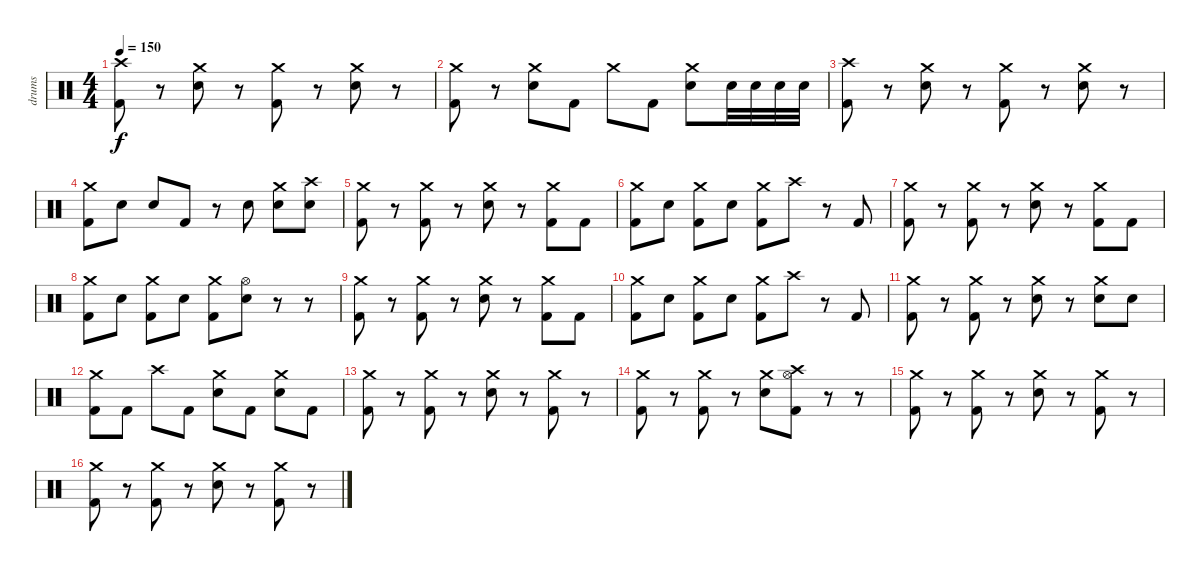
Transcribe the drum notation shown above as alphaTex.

\track ("drums" "drums") {instrument percussion}
\staff {score}
\articulation defaults
\ts (4 4)
\tempo 150
\clef neutral
\ks c
("Crash high (hit)" "Kick (hit) 2").8{dy f} r.8 ("Crash medium (hit)" "Snare (hit) 2").8 r.8 ("Crash medium (hit)" "Kick (hit) 2").8 r.8 ("Crash medium (hit)" "Snare (hit) 2").8 r.8 |
("Crash medium (hit)" "Kick (hit) 2").8 r.8 ("Crash medium (hit)" "Snare (hit) 2").8 "Kick (hit) 2".8 "Crash medium (hit)".8 "Kick (hit) 2".8 ("Crash medium (hit)" "Snare (hit) 2").8 "Snare (hit) 2".32 "Snare (hit) 2".32 "Snare (hit) 2".32 "Snare (hit) 2".32 |
("Crash high (hit)" "Kick (hit) 2").8 r.8 ("Crash medium (hit)" "Snare (hit) 2").8 r.8 ("Crash medium (hit)" "Kick (hit) 2").8 r.8 ("Crash medium (hit)" "Snare (hit) 2").8 r.8 |
("Crash medium (hit)" "Kick (hit) 2").8 "Snare (hit) 2".8 "Snare (hit) 2".8 "Kick (hit) 2".8 r.8 "Snare (hit) 2".8 ("Crash medium (hit)" "Snare (hit) 2").8 ("Crash high (hit)" "Snare (hit) 2").8 |
("Crash medium (hit)" "Kick (hit) 2").8 r.8 ("Crash medium (hit)" "Kick (hit) 2").8 r.8 ("Crash medium (hit)" "Snare (hit) 2").8 r.8 ("Crash medium (hit)" "Kick (hit) 2").8 "Kick (hit) 2".8 |
("Crash medium (hit)" "Kick (hit) 2").8 "Snare (hit) 2".8 ("Crash medium (hit)" "Kick (hit) 2").8 "Snare (hit) 2".8 ("Crash medium (hit)" "Kick (hit) 2").8 "Crash high (hit)".8 r.8 "Kick (hit) 2".8 |
("Crash medium (hit)" "Kick (hit) 2").8 r.8 ("Crash medium (hit)" "Kick (hit) 2").8 r.8 ("Crash medium (hit)" "Snare (hit) 2").8 r.8 ("Crash medium (hit)" "Kick (hit) 2").8 "Kick (hit) 2".8 |
("Crash medium (hit)" "Kick (hit) 2").8 "Snare (hit) 2".8 ("Crash medium (hit)" "Kick (hit) 2").8 "Snare (hit) 2".8 ("Crash medium (hit)" "Kick (hit) 2").8 ("Hi-Hat (open)" "Snare (hit) 2").8 r.8 r.8 |
("Crash medium (hit)" "Kick (hit) 2").8 r.8 ("Crash medium (hit)" "Kick (hit) 2").8 r.8 ("Crash medium (hit)" "Snare (hit) 2").8 r.8 ("Crash medium (hit)" "Kick (hit) 2").8 "Kick (hit) 2".8 |
("Crash medium (hit)" "Kick (hit) 2").8 "Snare (hit) 2".8 ("Crash medium (hit)" "Kick (hit) 2").8 "Snare (hit) 2".8 ("Crash medium (hit)" "Kick (hit) 2").8 "Crash high (hit)".8 r.8 "Kick (hit) 2".8 |
("Crash medium (hit)" "Kick (hit) 2").8 r.8 ("Crash medium (hit)" "Kick (hit) 2").8 r.8 ("Crash medium (hit)" "Snare (hit) 2").8 r.8 ("Crash medium (hit)" "Snare (hit) 2").8 "Snare (hit) 2".8 |
("Crash medium (hit)" "Kick (hit) 2").8 "Kick (hit) 2".8 "Crash high (hit)".8 "Kick (hit) 2".8 ("Crash medium (hit)" "Snare (hit) 2").8 "Kick (hit) 2".8 ("Crash medium (hit)" "Snare (hit) 2").8 "Kick (hit) 2".8 |
("Crash medium (hit)" "Kick (hit) 2").8 r.8 ("Crash medium (hit)" "Kick (hit) 2").8 r.8 ("Crash medium (hit)" "Snare (hit) 2").8 r.8 ("Crash medium (hit)" "Kick (hit) 2").8 r.8 |
("Crash medium (hit)" "Kick (hit) 2").8 r.8 ("Crash medium (hit)" "Kick (hit) 2").8 r.8 ("Crash medium (hit)" "Snare (hit) 2").8 ("Crash high (hit)" "Hi-Hat (open)" "Kick (hit) 2").8 r.8 r.8 |
("Crash medium (hit)" "Kick (hit) 2").8 r.8 ("Crash medium (hit)" "Kick (hit) 2").8 r.8 ("Crash medium (hit)" "Snare (hit) 2").8 r.8 ("Crash medium (hit)" "Kick (hit) 2").8 r.8 |
("Crash medium (hit)" "Kick (hit) 2").8 r.8 ("Crash medium (hit)" "Kick (hit) 2").8 r.8 ("Crash medium (hit)" "Snare (hit) 2").8 r.8 ("Crash medium (hit)" "Kick (hit) 2").8 r.8
